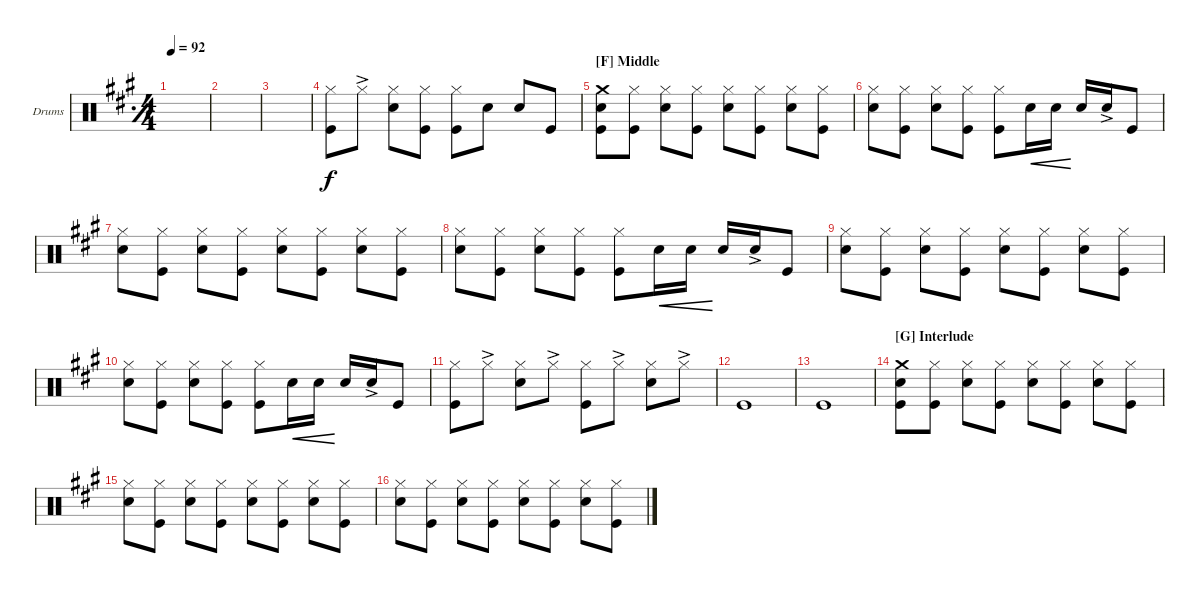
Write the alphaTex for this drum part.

\defaultSystemsLayout 4
\bracketExtendMode groupsimilarinstruments
\firstSystemTrackNameOrientation horizontal
\otherSystemsTrackNameOrientation horizontal
\track ("Matt Helders (Drums)" "Drums") {instrument percussion}
\staff {score}
\articulation defaults
\ts (4 4)
\tempo 92
\clef neutral
\simile simple
\ks a
|
|
|
("Kick (hit)" "Hi-Hat (closed)").8 "Hi-Hat (closed)"{ac}.8 ("Snare (hit) 2" "Hi-Hat (closed)").8 ("Hi-Hat (closed)" "Kick (hit)").8 ("Kick (hit)" "Hi-Hat (closed)").8 "Snare (hit) 2".8 "Snare (hit) 2".8 "Kick (hit)".8 |
\section ("F" "Middle")
("Crash medium (hit)" "Kick (hit)" "Snare (hit) 2").8 ("Hi-Hat (closed)" "Kick (hit)").8 ("Snare (hit) 2" "Hi-Hat (closed)").8 ("Hi-Hat (closed)" "Kick (hit)").8 ("Hi-Hat (closed)" "Snare (hit) 2").8 ("Hi-Hat (closed)" "Kick (hit)").8 ("Snare (hit) 2" "Hi-Hat (closed)").8 ("Hi-Hat (closed)" "Kick (hit)").8 |
("Hi-Hat (closed)" "Snare (hit) 2").8 ("Hi-Hat (closed)" "Kick (hit)").8 ("Snare (hit) 2" "Hi-Hat (closed)").8 ("Hi-Hat (closed)" "Kick (hit)").8 ("Kick (hit)" "Hi-Hat (closed)").8 "Snare (hit) 2".16{cre} "Snare (hit) 2".16{cre} "Snare (hit) 2".16 "Snare (hit) 2"{ac}.16 "Kick (hit)".8 |
("Snare (hit) 2" "Hi-Hat (closed)").8 ("Hi-Hat (closed)" "Kick (hit)").8 ("Snare (hit) 2" "Hi-Hat (closed)").8 ("Hi-Hat (closed)" "Kick (hit)").8 ("Hi-Hat (closed)" "Snare (hit) 2").8 ("Hi-Hat (closed)" "Kick (hit)").8 ("Snare (hit) 2" "Hi-Hat (closed)").8 ("Hi-Hat (closed)" "Kick (hit)").8 |
("Hi-Hat (closed)" "Snare (hit) 2").8 ("Hi-Hat (closed)" "Kick (hit)").8 ("Snare (hit) 2" "Hi-Hat (closed)").8 ("Hi-Hat (closed)" "Kick (hit)").8 ("Kick (hit)" "Hi-Hat (closed)").8 "Snare (hit) 2".16{cre} "Snare (hit) 2".16{cre} "Snare (hit) 2".16 "Snare (hit) 2"{ac}.16 "Kick (hit)".8 |
("Snare (hit) 2" "Hi-Hat (closed)").8 ("Hi-Hat (closed)" "Kick (hit)").8 ("Snare (hit) 2" "Hi-Hat (closed)").8 ("Hi-Hat (closed)" "Kick (hit)").8 ("Hi-Hat (closed)" "Snare (hit) 2").8 ("Hi-Hat (closed)" "Kick (hit)").8 ("Snare (hit) 2" "Hi-Hat (closed)").8 ("Hi-Hat (closed)" "Kick (hit)").8 |
("Hi-Hat (closed)" "Snare (hit) 2").8 ("Hi-Hat (closed)" "Kick (hit)").8 ("Snare (hit) 2" "Hi-Hat (closed)").8 ("Hi-Hat (closed)" "Kick (hit)").8 ("Kick (hit)" "Hi-Hat (closed)").8 "Snare (hit) 2".16{cre} "Snare (hit) 2".16{cre} "Snare (hit) 2".16 "Snare (hit) 2"{ac}.16 "Kick (hit)".8 |
("Kick (hit)" "Hi-Hat (closed)").8 "Hi-Hat (closed)"{ac}.8 ("Snare (hit) 2" "Hi-Hat (closed)").8 "Hi-Hat (closed)"{ac}.8 ("Kick (hit)" "Hi-Hat (closed)").8 "Hi-Hat (closed)"{ac}.8 ("Snare (hit) 2" "Hi-Hat (closed)").8 "Hi-Hat (closed)"{ac}.8 |
"Kick (hit)".1 |
"Kick (hit)".1 |
\section ("G" "Interlude")
("Snare (hit) 2" "Kick (hit)" "Crash medium (hit)").8 ("Hi-Hat (closed)" "Kick (hit)").8 ("Snare (hit) 2" "Hi-Hat (closed)").8 ("Hi-Hat (closed)" "Kick (hit)").8 ("Hi-Hat (closed)" "Snare (hit) 2").8 ("Hi-Hat (closed)" "Kick (hit)").8 ("Snare (hit) 2" "Hi-Hat (closed)").8 ("Hi-Hat (closed)" "Kick (hit)").8 |
("Snare (hit) 2" "Hi-Hat (closed)").8 ("Hi-Hat (closed)" "Kick (hit)").8 ("Snare (hit) 2" "Hi-Hat (closed)").8 ("Hi-Hat (closed)" "Kick (hit)").8 ("Hi-Hat (closed)" "Snare (hit) 2").8 ("Hi-Hat (closed)" "Kick (hit)").8 ("Snare (hit) 2" "Hi-Hat (closed)").8 ("Hi-Hat (closed)" "Kick (hit)").8 |
("Snare (hit) 2" "Hi-Hat (closed)").8 ("Hi-Hat (closed)" "Kick (hit)").8 ("Snare (hit) 2" "Hi-Hat (closed)").8 ("Hi-Hat (closed)" "Kick (hit)").8 ("Hi-Hat (closed)" "Snare (hit) 2").8 ("Hi-Hat (closed)" "Kick (hit)").8 ("Snare (hit) 2" "Hi-Hat (closed)").8 ("Hi-Hat (closed)" "Kick (hit)").8
